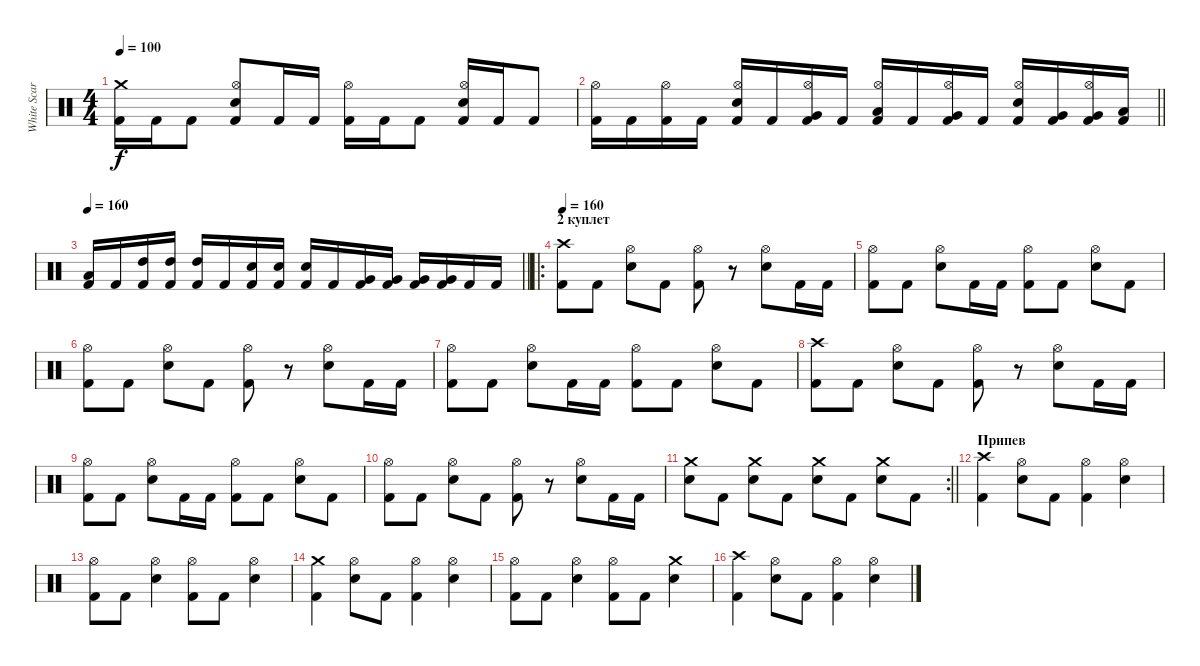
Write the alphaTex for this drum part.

\track ("White Scar" "White Scar") {instrument percussion}
\staff {score}
\articulation defaults
\ts (4 4)
\tempo 100
\clef neutral
\ks c
("Crash medium (hit)" "Kick (hit) 2").16{dy f} "Kick (hit) 2".16 "Kick (hit) 2".8 ("Hi-Hat (open)" "Snare (hit) 2" "Kick (hit) 2").8 "Kick (hit) 2".16 "Kick (hit) 2".16 ("Hi-Hat (open)" "Kick (hit) 2").16 "Kick (hit) 2".16 "Kick (hit) 2".8 ("Hi-Hat (open)" "Snare (hit) 2" "Kick (hit) 2").16 "Kick (hit) 2".16 "Kick (hit) 2".8 |
\barLineRight lightlight
("Hi-Hat (open)" "Kick (hit) 2").16 "Kick (hit) 2".16 ("Hi-Hat (open)" "Kick (hit) 2").16 "Kick (hit) 2".16 ("Hi-Hat (open)" "Snare (hit) 2" "Kick (hit) 2").16 "Kick (hit) 2".16 ("Hi-Hat (open)" "Very Low Tom (hit)" "Kick (hit) 2").16 "Kick (hit) 2".16 ("Hi-Hat (open)" "Low Floor Tom (hit)" "Kick (hit) 2").16 "Kick (hit) 2".16 ("Hi-Hat (open)" "Very Low Tom (hit)" "Kick (hit) 2").16 "Kick (hit) 2".16 ("Hi-Hat (open)" "Snare (hit) 2" "Kick (hit) 2").16 ("Very Low Tom (hit)" "Kick (hit) 2").16 ("Hi-Hat (open)" "Very Low Tom (hit)" "Kick (hit) 2").16 ("Low Floor Tom (hit)" "Kick (hit) 2").16 |
\tempo 160
\barLineRight lightlight
("Low Tom (hit)" "Kick (hit) 2").16 "Kick (hit) 2".16 ("High Tom (hit)" "Kick (hit) 2").16 ("High Tom (hit)" "Kick (hit) 2").16 ("High Tom (hit)" "Kick (hit) 2").16 "Kick (hit) 2".16 ("Snare (hit) 2" "Kick (hit) 2").16 ("Snare (hit) 2" "Kick (hit) 2").16 ("Snare (hit) 2" "Kick (hit) 2").16 "Kick (hit) 2".16 ("Very Low Tom (hit)" "Kick (hit) 2").16 ("Very Low Tom (hit)" "Kick (hit) 2").16 ("Very Low Tom (hit)" "Kick (hit) 2").16 ("Very Low Tom (hit)" "Kick (hit) 2").16 "Kick (hit) 2".16 "Kick (hit) 2".16 |
\ro
\section ("" "2 куплет")
\tempo 160
("Crash high (hit)" "Kick (hit) 2").8 "Kick (hit) 2".8 ("Hi-Hat (open)" "Snare (hit) 2").8 "Kick (hit) 2".8 ("Hi-Hat (open)" "Kick (hit) 2").8 r.8 ("Hi-Hat (open)" "Snare (hit) 2").8 "Kick (hit) 2".16 "Kick (hit) 2".16 |
("Hi-Hat (open)" "Kick (hit) 2").8 "Kick (hit) 2".8 ("Hi-Hat (open)" "Snare (hit) 2").8 "Kick (hit) 2".16 "Kick (hit) 2".16 ("Hi-Hat (open)" "Kick (hit) 2").8 "Kick (hit) 2".8 ("Hi-Hat (open)" "Snare (hit) 2").8 "Kick (hit) 2".8 |
("Hi-Hat (open)" "Kick (hit) 2").8 "Kick (hit) 2".8 ("Hi-Hat (open)" "Snare (hit) 2").8 "Kick (hit) 2".8 ("Hi-Hat (open)" "Kick (hit) 2").8 r.8 ("Hi-Hat (open)" "Snare (hit) 2").8 "Kick (hit) 2".16 "Kick (hit) 2".16 |
("Hi-Hat (open)" "Kick (hit) 2").8 "Kick (hit) 2".8 ("Hi-Hat (open)" "Snare (hit) 2").8 "Kick (hit) 2".16 "Kick (hit) 2".16 ("Hi-Hat (open)" "Kick (hit) 2").8 "Kick (hit) 2".8 ("Hi-Hat (open)" "Snare (hit) 2").8 "Kick (hit) 2".8 |
("Crash high (hit)" "Kick (hit) 2").8 "Kick (hit) 2".8 ("Hi-Hat (open)" "Snare (hit) 2").8 "Kick (hit) 2".8 ("Hi-Hat (open)" "Kick (hit) 2").8 r.8 ("Hi-Hat (open)" "Snare (hit) 2").8 "Kick (hit) 2".16 "Kick (hit) 2".16 |
("Hi-Hat (open)" "Kick (hit) 2").8 "Kick (hit) 2".8 ("Hi-Hat (open)" "Snare (hit) 2").8 "Kick (hit) 2".16 "Kick (hit) 2".16 ("Hi-Hat (open)" "Kick (hit) 2").8 "Kick (hit) 2".8 ("Hi-Hat (open)" "Snare (hit) 2").8 "Kick (hit) 2".8 |
("Hi-Hat (open)" "Kick (hit) 2").8 "Kick (hit) 2".8 ("Hi-Hat (open)" "Snare (hit) 2").8 "Kick (hit) 2".8 ("Hi-Hat (open)" "Kick (hit) 2").8 r.8 ("Hi-Hat (open)" "Snare (hit) 2").8 "Kick (hit) 2".16 "Kick (hit) 2".16 |
\rc 2
\barLineRight lightlight
("Crash medium (hit)" "Snare (hit) 2").8 "Kick (hit) 2".8 ("Crash medium (hit)" "Snare (hit) 2").8 "Kick (hit) 2".8 ("Crash medium (hit)" "Snare (hit) 2").8 "Kick (hit) 2".8 ("Crash medium (hit)" "Snare (hit) 2").8 "Kick (hit) 2".8 |
\section ("" "Припев")
("Crash high (hit)" "Kick (hit) 2").4 ("Hi-Hat (open)" "Snare (hit) 2").8 "Kick (hit) 2".8 ("Hi-Hat (open)" "Kick (hit) 2").4 ("Hi-Hat (open)" "Snare (hit) 2").4 |
("Hi-Hat (open)" "Kick (hit) 2").8 "Kick (hit) 2".8 ("Hi-Hat (open)" "Snare (hit) 2").4 ("Hi-Hat (open)" "Kick (hit) 2").8 "Kick (hit) 2".8 ("Hi-Hat (open)" "Snare (hit) 2").4 |
("Crash medium (hit)" "Kick (hit) 2").4 ("Hi-Hat (open)" "Snare (hit) 2").8 "Kick (hit) 2".8 ("Hi-Hat (open)" "Kick (hit) 2").4 ("Hi-Hat (open)" "Snare (hit) 2").4 |
("Hi-Hat (open)" "Kick (hit) 2").8 "Kick (hit) 2".8 ("Hi-Hat (open)" "Snare (hit) 2").4 ("Hi-Hat (open)" "Kick (hit) 2").8 "Kick (hit) 2".8 ("Crash medium (hit)" "Snare (hit) 2").4 |
("Crash high (hit)" "Kick (hit) 2").4 ("Hi-Hat (open)" "Snare (hit) 2").8 "Kick (hit) 2".8 ("Hi-Hat (open)" "Kick (hit) 2").4 ("Hi-Hat (open)" "Snare (hit) 2").4
